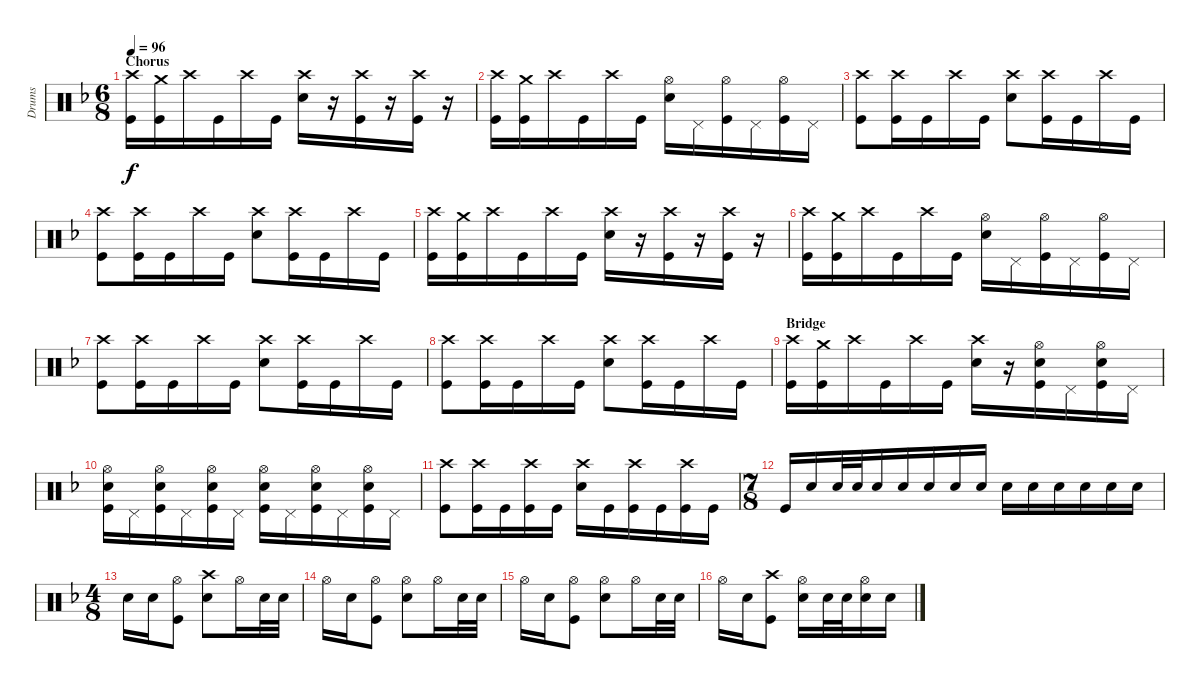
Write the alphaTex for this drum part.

\track ("Drums" "Drums") {instrument percussion}
\staff {score}
\articulation defaults
\ts (6 8)
\section ("" "Chorus")
\tempo 96
\clef neutral
\ks f
("Crash high (hit)" "Kick (hit)").16{dy f} ("Crash medium (hit)" "Kick (hit)").16 "Crash high (hit)".16 "Kick (hit)".16 "Crash high (hit)".16 "Kick (hit)".16 ("Crash high (hit)" "Snare (hit) 2").16 r.16 ("Crash high (hit)" "Kick (hit)").16 r.16 ("Crash high (hit)" "Kick (hit)").16 r.16 |
("Crash high (hit)" "Kick (hit)").16 ("Crash medium (hit)" "Kick (hit)").16 "Crash high (hit)".16 "Kick (hit)".16 "Crash high (hit)".16 "Kick (hit)".16 ("Hi-Hat (open)" "Snare (hit) 2").16 "Pedal Hi-Hat (hit)".16 ("Hi-Hat (open)" "Kick (hit)").16 "Pedal Hi-Hat (hit)".16 ("Hi-Hat (open)" "Kick (hit)").16 "Pedal Hi-Hat (hit)".16 |
("Crash high (hit)" "Kick (hit)").8 ("Crash high (hit)" "Kick (hit)").16 "Kick (hit)".16 "Crash high (hit)".16 "Kick (hit)".16 ("Crash high (hit)" "Snare (hit) 2").8 ("Crash high (hit)" "Kick (hit)").16 "Kick (hit)".16 "Crash high (hit)".16 "Kick (hit)".16 |
("Crash high (hit)" "Kick (hit)").8 ("Crash high (hit)" "Kick (hit)").16 "Kick (hit)".16 "Crash high (hit)".16 "Kick (hit)".16 ("Crash high (hit)" "Snare (hit) 2").8 ("Crash high (hit)" "Kick (hit)").16 "Kick (hit)".16 "Crash high (hit)".16 "Kick (hit)".16 |
("Crash high (hit)" "Kick (hit)").16 ("Crash medium (hit)" "Kick (hit)").16 "Crash high (hit)".16 "Kick (hit)".16 "Crash high (hit)".16 "Kick (hit)".16 ("Crash high (hit)" "Snare (hit) 2").16 r.16 ("Crash high (hit)" "Kick (hit)").16 r.16 ("Crash high (hit)" "Kick (hit)").16 r.16 |
("Crash high (hit)" "Kick (hit)").16 ("Crash medium (hit)" "Kick (hit)").16 "Crash high (hit)".16 "Kick (hit)".16 "Crash high (hit)".16 "Kick (hit)".16 ("Hi-Hat (open)" "Snare (hit) 2").16 "Pedal Hi-Hat (hit)".16 ("Hi-Hat (open)" "Kick (hit)").16 "Pedal Hi-Hat (hit)".16 ("Hi-Hat (open)" "Kick (hit)").16 "Pedal Hi-Hat (hit)".16 |
("Crash high (hit)" "Kick (hit)").8 ("Crash high (hit)" "Kick (hit)").16 "Kick (hit)".16 "Crash high (hit)".16 "Kick (hit)".16 ("Crash high (hit)" "Snare (hit) 2").8 ("Crash high (hit)" "Kick (hit)").16 "Kick (hit)".16 "Crash high (hit)".16 "Kick (hit)".16 |
("Crash high (hit)" "Kick (hit)").8 ("Crash high (hit)" "Kick (hit)").16 "Kick (hit)".16 "Crash high (hit)".16 "Kick (hit)".16 ("Crash high (hit)" "Snare (hit) 2").8 ("Crash high (hit)" "Kick (hit)").16 "Kick (hit)".16 "Crash high (hit)".16 "Kick (hit)".16 |
\section ("" "Bridge")
("Crash high (hit)" "Kick (hit)").16 ("Crash medium (hit)" "Kick (hit)").16 "Crash high (hit)".16 "Kick (hit)".16 "Crash high (hit)".16 "Kick (hit)".16 ("Crash high (hit)" "Snare (hit) 2").16 r.16 ("Hi-Hat (open)" "Snare (hit) 2" "Kick (hit)").16 "Pedal Hi-Hat (hit)".16 ("Hi-Hat (open)" "Snare (hit) 2" "Kick (hit)").16 "Pedal Hi-Hat (hit)".16 |
("Hi-Hat (open)" "Snare (hit) 2" "Kick (hit)").16 "Pedal Hi-Hat (hit)".16 ("Hi-Hat (open)" "Snare (hit) 2" "Kick (hit)").16 "Pedal Hi-Hat (hit)".16 ("Hi-Hat (open)" "Snare (hit) 2" "Kick (hit)").16 "Pedal Hi-Hat (hit)".16 ("Hi-Hat (open)" "Snare (hit) 2" "Kick (hit)").16 "Pedal Hi-Hat (hit)".16 ("Hi-Hat (open)" "Snare (hit) 2" "Kick (hit)").16 "Pedal Hi-Hat (hit)".16 ("Hi-Hat (open)" "Snare (hit) 2" "Kick (hit)").16 "Pedal Hi-Hat (hit)".16 |
("Crash high (hit)" "Kick (hit)").8 ("Crash high (hit)" "Kick (hit)").16 "Kick (hit)".16 ("Crash high (hit)" "Kick (hit)").16 "Kick (hit)".16 ("Crash high (hit)" "Snare (hit) 2").16 "Kick (hit)".16 ("Crash high (hit)" "Kick (hit)").16 "Kick (hit)".16 ("Crash high (hit)" "Kick (hit)").16 "Kick (hit)".16 |
\ts (7 8)
"Kick (hit)".16 "Snare (hit) 2".16 "Snare (hit) 2".32 "Snare (hit) 2".32 "Snare (hit) 2".16 "Snare (hit) 2".16 "Snare (hit) 2".16 "Snare (hit) 2".16 "Snare (hit) 2".16 "Snare (hit) 2".16 "Snare (hit) 2".16 "Snare (hit) 2".16 "Snare (hit) 2".16 "Snare (hit) 2".16 "Snare (hit) 2".16 |
\ts (4 8)
"Snare (hit) 2".16 "Snare (hit) 2".16 ("Hi-Hat (open)" "Kick (hit)").8 ("Crash high (hit)" "Snare (hit) 2").8 "Hi-Hat (open)".16 "Snare (hit) 2".32 "Snare (hit) 2".32 |
"Hi-Hat (open)".16 "Snare (hit) 2".16 ("Hi-Hat (open)" "Kick (hit)").8 ("Hi-Hat (open)" "Snare (hit) 2").8 "Hi-Hat (open)".16 "Snare (hit) 2".32 "Snare (hit) 2".32 |
"Hi-Hat (open)".16 "Snare (hit) 2".16 ("Hi-Hat (open)" "Kick (hit)").8 ("Hi-Hat (open)" "Snare (hit) 2").8 "Hi-Hat (open)".16 "Snare (hit) 2".32 "Snare (hit) 2".32 |
"Hi-Hat (open)".16 "Snare (hit) 2".16 ("Crash high (hit)" "Kick (hit)").8 ("Hi-Hat (open)" "Snare (hit) 2").16 "Snare (hit) 2".32 "Snare (hit) 2".32 ("Hi-Hat (open)" "Snare (hit) 2").16 "Snare (hit) 2".16
